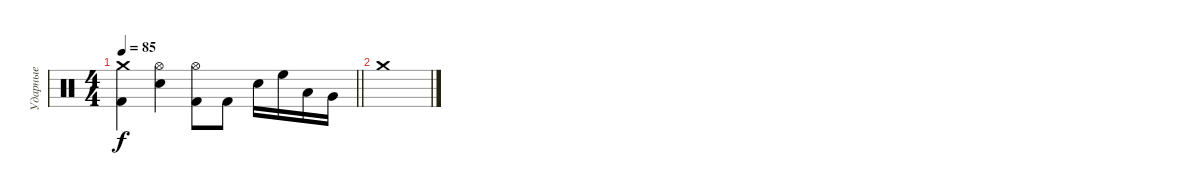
\track ("Ударные" "Ударные") {instrument percussion}
\staff {score}
\articulation defaults
\ts (4 4)
\tempo 85
\clef neutral
\barLineRight lightlight
\ks c
("Crash medium (hit)" "Kick (hit) 2").4{dy f} ("Hi-Hat (open)" "Snare (hit) 2").4 ("Hi-Hat (open)" "Kick (hit) 2").8 "Kick (hit) 2".8 "Snare (hit) 2".16 "High Floor Tom (hit)".16 "Low Tom (hit)".16 "Very Low Tom (hit)".16 |
"Crash medium (hit)".1
